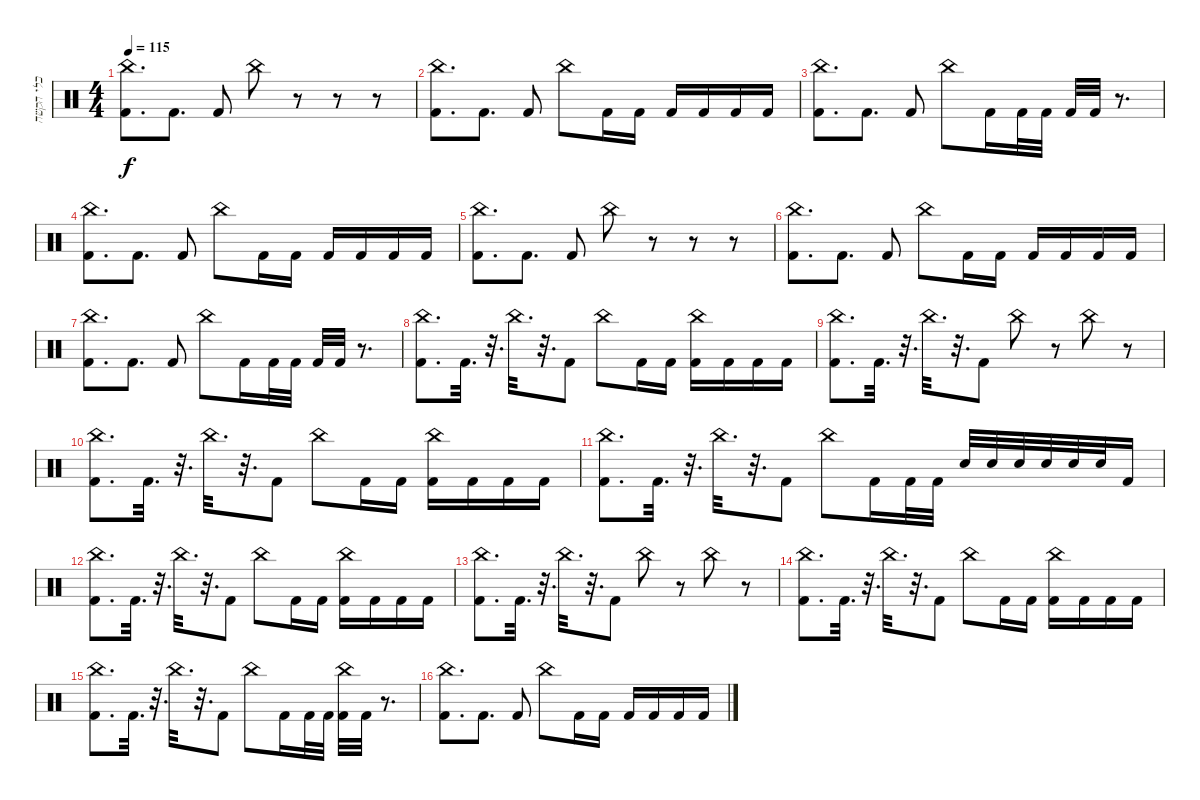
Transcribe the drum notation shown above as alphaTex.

\track ("כלי הקשה" "כלי הקשה") {instrument percussion}
\staff {score}
\articulation defaults
\ts (4 4)
\tempo 115
\clef neutral
\ks c
("China (hit)" "Kick (hit) 2").8{d dy f} "Kick (hit) 2".8{d} "Kick (hit) 2".8 "China (hit)".8 r.8 r.8 r.8 |
("China (hit)" "Kick (hit) 2").8{d} "Kick (hit) 2".8{d} "Kick (hit) 2".8 "China (hit)".8 "Kick (hit) 2".16 "Kick (hit) 2".16 "Kick (hit) 2".16 "Kick (hit) 2".16 "Kick (hit) 2".16 "Kick (hit) 2".16 |
("China (hit)" "Kick (hit) 2").8{d} "Kick (hit) 2".8{d} "Kick (hit) 2".8 "China (hit)".8 "Kick (hit) 2".16 "Kick (hit) 2".32 "Kick (hit) 2".32 "Kick (hit) 2".32 "Kick (hit) 2".32 r.8{d} |
("China (hit)" "Kick (hit) 2").8{d} "Kick (hit) 2".8{d} "Kick (hit) 2".8 "China (hit)".8 "Kick (hit) 2".16 "Kick (hit) 2".16 "Kick (hit) 2".16 "Kick (hit) 2".16 "Kick (hit) 2".16 "Kick (hit) 2".16 |
("China (hit)" "Kick (hit) 2").8{d} "Kick (hit) 2".8{d} "Kick (hit) 2".8 "China (hit)".8 r.8 r.8 r.8 |
("China (hit)" "Kick (hit) 2").8{d} "Kick (hit) 2".8{d} "Kick (hit) 2".8 "China (hit)".8 "Kick (hit) 2".16 "Kick (hit) 2".16 "Kick (hit) 2".16 "Kick (hit) 2".16 "Kick (hit) 2".16 "Kick (hit) 2".16 |
("China (hit)" "Kick (hit) 2").8{d} "Kick (hit) 2".8{d} "Kick (hit) 2".8 "China (hit)".8 "Kick (hit) 2".16 "Kick (hit) 2".32 "Kick (hit) 2".32 "Kick (hit) 2".32 "Kick (hit) 2".32 r.8{d} |
("China (hit)" "Kick (hit) 2").8{d} "Kick (hit) 2".32{d} r.32{d} "China (hit)".32{d} r.32{d} "Kick (hit) 2".8 "China (hit)".8 "Kick (hit) 2".16 "Kick (hit) 2".16 ("China (hit)" "Kick (hit) 2").16 "Kick (hit) 2".16 "Kick (hit) 2".16 "Kick (hit) 2".16 |
("China (hit)" "Kick (hit) 2").8{d} "Kick (hit) 2".32{d} r.32{d} "China (hit)".32{d} r.32{d} "Kick (hit) 2".8 "China (hit)".8 r.8 "China (hit)".8 r.8 |
("China (hit)" "Kick (hit) 2").8{d} "Kick (hit) 2".32{d} r.32{d} "China (hit)".32{d} r.32{d} "Kick (hit) 2".8 "China (hit)".8 "Kick (hit) 2".16 "Kick (hit) 2".16 ("China (hit)" "Kick (hit) 2").16 "Kick (hit) 2".16 "Kick (hit) 2".16 "Kick (hit) 2".16 |
("China (hit)" "Kick (hit) 2").8{d} "Kick (hit) 2".32{d} r.32{d} "China (hit)".32{d} r.32{d} "Kick (hit) 2".8 "China (hit)".8 "Kick (hit) 2".16 "Kick (hit) 2".32 "Kick (hit) 2".32 "Snare (hit) 2".32 "Snare (hit) 2".32 "Snare (hit) 2".32 "Snare (hit) 2".32 "Snare (hit) 2".32 "Snare (hit) 2".32 "Kick (hit) 2".16 |
("China (hit)" "Kick (hit) 2").8{d} "Kick (hit) 2".32{d} r.32{d} "China (hit)".32{d} r.32{d} "Kick (hit) 2".8 "China (hit)".8 "Kick (hit) 2".16 "Kick (hit) 2".16 ("China (hit)" "Kick (hit) 2").16 "Kick (hit) 2".16 "Kick (hit) 2".16 "Kick (hit) 2".16 |
("China (hit)" "Kick (hit) 2").8{d} "Kick (hit) 2".32{d} r.32{d} "China (hit)".32{d} r.32{d} "Kick (hit) 2".8 "China (hit)".8 r.8 "China (hit)".8 r.8 |
("China (hit)" "Kick (hit) 2").8{d} "Kick (hit) 2".32{d} r.32{d} "China (hit)".32{d} r.32{d} "Kick (hit) 2".8 "China (hit)".8 "Kick (hit) 2".16 "Kick (hit) 2".16 ("China (hit)" "Kick (hit) 2").16 "Kick (hit) 2".16 "Kick (hit) 2".16 "Kick (hit) 2".16 |
("China (hit)" "Kick (hit) 2").8{d} "Kick (hit) 2".32{d} r.32{d} "China (hit)".32{d} r.32{d} "Kick (hit) 2".8 "China (hit)".8 "Kick (hit) 2".16 "Kick (hit) 2".32 "Kick (hit) 2".32 ("China (hit)" "Kick (hit) 2").32 "Kick (hit) 2".32 r.8{d} |
("China (hit)" "Kick (hit) 2").8{d} "Kick (hit) 2".8{d} "Kick (hit) 2".8 "China (hit)".8 "Kick (hit) 2".16 "Kick (hit) 2".16 "Kick (hit) 2".16 "Kick (hit) 2".16 "Kick (hit) 2".16 "Kick (hit) 2".16
